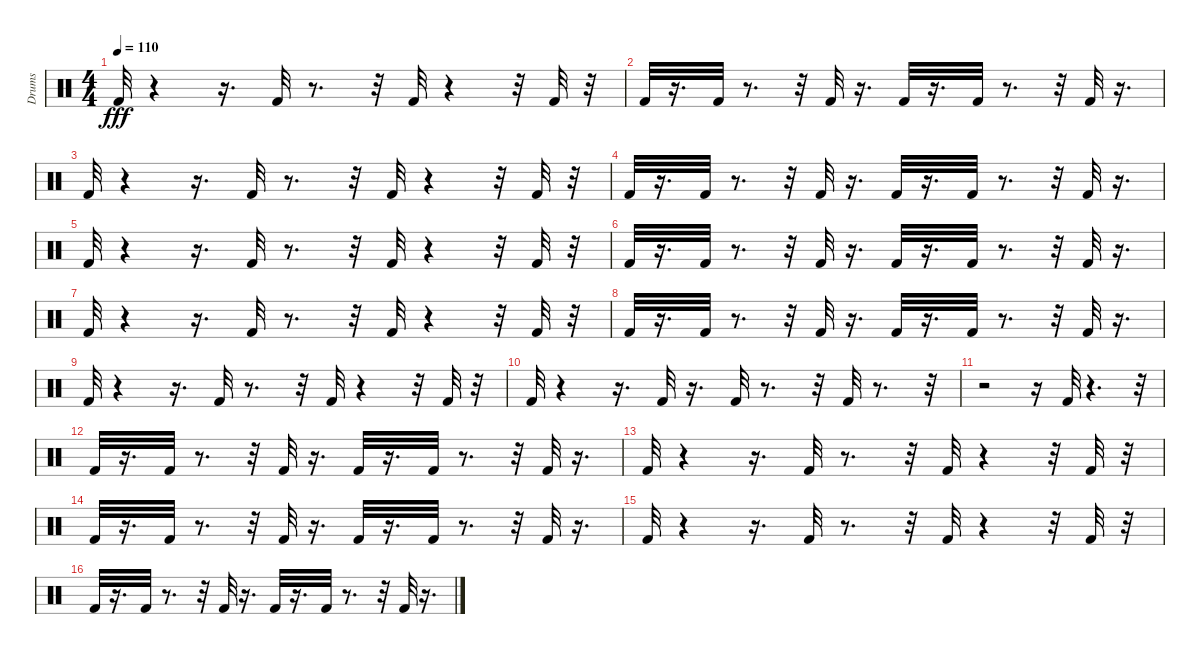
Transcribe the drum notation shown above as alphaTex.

\track ("Drums" "Drums") {instrument percussion}
\staff {score}
\articulation defaults
\ts (4 4)
\tempo 110
\clef neutral
\ks c "Kick (hit) 2".32{dy fff}
r.4 r.16{d} "Kick (hit) 2".32 r.8{d} r.32 "Kick (hit) 2".32 r.4 r.32 "Kick (hit) 2".32 r.32 |
"Kick (hit) 2".32 r.16{d} "Kick (hit) 2".32 r.8{d} r.32 "Kick (hit) 2".32 r.16{d} "Kick (hit) 2".32 r.16{d} "Kick (hit) 2".32 r.8{d} r.32 "Kick (hit) 2".32 r.16{d} |
"Kick (hit) 2".32 r.4 r.16{d} "Kick (hit) 2".32 r.8{d} r.32 "Kick (hit) 2".32 r.4 r.32 "Kick (hit) 2".32 r.32 |
"Kick (hit) 2".32 r.16{d} "Kick (hit) 2".32 r.8{d} r.32 "Kick (hit) 2".32 r.16{d} "Kick (hit) 2".32 r.16{d} "Kick (hit) 2".32 r.8{d} r.32 "Kick (hit) 2".32 r.16{d} |
"Kick (hit) 2".32 r.4 r.16{d} "Kick (hit) 2".32 r.8{d} r.32 "Kick (hit) 2".32 r.4 r.32 "Kick (hit) 2".32 r.32 |
"Kick (hit) 2".32 r.16{d} "Kick (hit) 2".32 r.8{d} r.32 "Kick (hit) 2".32 r.16{d} "Kick (hit) 2".32 r.16{d} "Kick (hit) 2".32 r.8{d} r.32 "Kick (hit) 2".32 r.16{d} |
"Kick (hit) 2".32 r.4 r.16{d} "Kick (hit) 2".32 r.8{d} r.32 "Kick (hit) 2".32 r.4 r.32 "Kick (hit) 2".32 r.32 |
"Kick (hit) 2".32 r.16{d} "Kick (hit) 2".32 r.8{d} r.32 "Kick (hit) 2".32 r.16{d} "Kick (hit) 2".32 r.16{d} "Kick (hit) 2".32 r.8{d} r.32 "Kick (hit) 2".32 r.16{d} |
"Kick (hit) 2".32 r.4 r.16{d} "Kick (hit) 2".32 r.8{d} r.32 "Kick (hit) 2".32 r.4 r.32 "Kick (hit) 2".32 r.32 |
"Kick (hit) 2".32 r.4 r.16{d} "Kick (hit) 2".32 r.16{d} "Kick (hit) 2".32 r.8{d} r.32 "Kick (hit) 2".32 r.8{d} r.32 |
r.2 r.16 "Kick (hit) 2".32 r.4{d} r.32 |
"Kick (hit) 2".32 r.16{d} "Kick (hit) 2".32 r.8{d} r.32 "Kick (hit) 2".32 r.16{d} "Kick (hit) 2".32 r.16{d} "Kick (hit) 2".32 r.8{d} r.32 "Kick (hit) 2".32 r.16{d} |
"Kick (hit) 2".32 r.4 r.16{d} "Kick (hit) 2".32 r.8{d} r.32 "Kick (hit) 2".32 r.4 r.32 "Kick (hit) 2".32 r.32 |
"Kick (hit) 2".32 r.16{d} "Kick (hit) 2".32 r.8{d} r.32 "Kick (hit) 2".32 r.16{d} "Kick (hit) 2".32 r.16{d} "Kick (hit) 2".32 r.8{d} r.32 "Kick (hit) 2".32 r.16{d} |
"Kick (hit) 2".32 r.4 r.16{d} "Kick (hit) 2".32 r.8{d} r.32 "Kick (hit) 2".32 r.4 r.32 "Kick (hit) 2".32 r.32 |
"Kick (hit) 2".32 r.16{d} "Kick (hit) 2".32 r.8{d} r.32 "Kick (hit) 2".32 r.16{d} "Kick (hit) 2".32 r.16{d} "Kick (hit) 2".32 r.8{d} r.32 "Kick (hit) 2".32 r.16{d}
